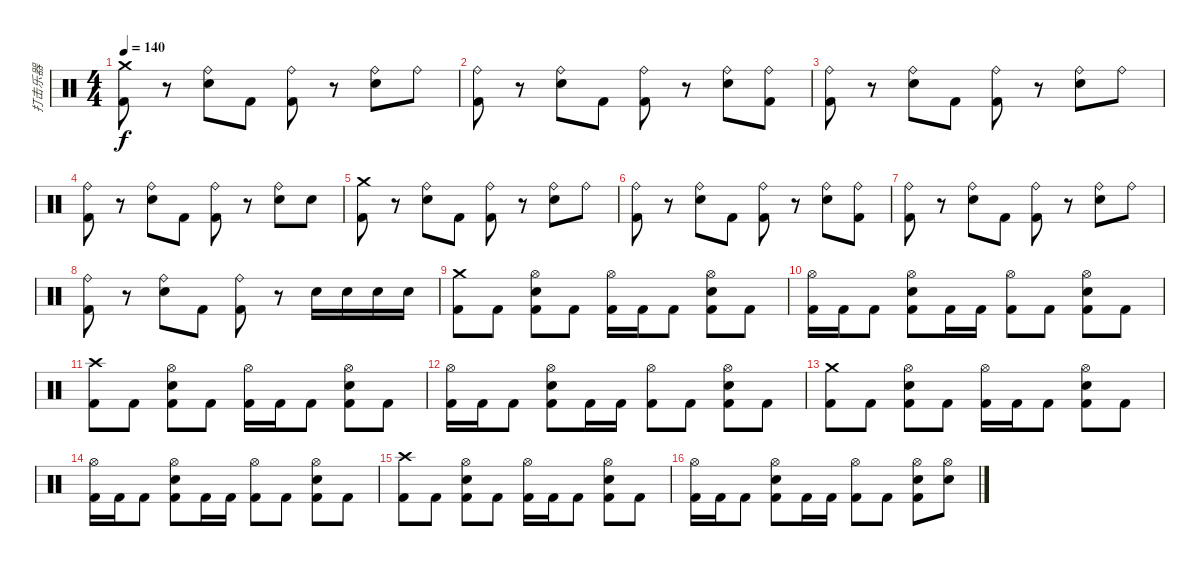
\track ("打击乐器" "打击乐器") {instrument percussion}
\staff {score}
\articulation defaults
\ts (4 4)
\tempo 140
\clef neutral
\ks c
("Crash medium (hit)" "Kick (hit) 2").8{dy f} r.8 ("Ride (bell)" "Snare (hit) 2").8 "Kick (hit) 2".8 ("Ride (bell)" "Kick (hit) 2").8 r.8 ("Ride (bell)" "Snare (hit) 2").8 "Ride (bell)".8 |
("Ride (bell)" "Kick (hit) 2").8 r.8 ("Ride (bell)" "Snare (hit) 2").8 "Kick (hit) 2".8 ("Ride (bell)" "Kick (hit) 2").8 r.8 ("Ride (bell)" "Snare (hit) 2").8 ("Ride (bell)" "Kick (hit) 2").8 |
("Ride (bell)" "Kick (hit) 2").8 r.8 ("Ride (bell)" "Snare (hit) 2").8 "Kick (hit) 2".8 ("Ride (bell)" "Kick (hit) 2").8 r.8 ("Ride (bell)" "Snare (hit) 2").8 "Ride (bell)".8 |
("Ride (bell)" "Kick (hit) 2").8 r.8 ("Ride (bell)" "Snare (hit) 2").8 "Kick (hit) 2".8 ("Ride (bell)" "Kick (hit) 2").8 r.8 ("Ride (bell)" "Snare (hit) 2").8 "Snare (hit) 2".8 |
("Crash medium (hit)" "Kick (hit) 2").8 r.8 ("Ride (bell)" "Snare (hit) 2").8 "Kick (hit) 2".8 ("Ride (bell)" "Kick (hit) 2").8 r.8 ("Ride (bell)" "Snare (hit) 2").8 "Ride (bell)".8 |
("Ride (bell)" "Kick (hit) 2").8 r.8 ("Ride (bell)" "Snare (hit) 2").8 "Kick (hit) 2".8 ("Ride (bell)" "Kick (hit) 2").8 r.8 ("Ride (bell)" "Snare (hit) 2").8 ("Ride (bell)" "Kick (hit) 2").8 |
("Ride (bell)" "Kick (hit) 2").8 r.8 ("Ride (bell)" "Snare (hit) 2").8 "Kick (hit) 2".8 ("Ride (bell)" "Kick (hit) 2").8 r.8 ("Ride (bell)" "Snare (hit) 2").8 "Ride (bell)".8 |
("Ride (bell)" "Kick (hit) 2").8 r.8 ("Ride (bell)" "Snare (hit) 2").8 "Kick (hit) 2".8 ("Ride (bell)" "Kick (hit) 2").8 r.8 "Snare (hit) 2".16 "Snare (hit) 2".16 "Snare (hit) 2".16 "Snare (hit) 2".16 |
("Crash medium (hit)" "Kick (hit) 2").8 "Kick (hit) 2".8 ("Hi-Hat (open)" "Snare (hit) 2" "Kick (hit) 2").8 "Kick (hit) 2".8 ("Hi-Hat (open)" "Kick (hit) 2").16 "Kick (hit) 2".16 "Kick (hit) 2".8 ("Hi-Hat (open)" "Snare (hit) 2" "Kick (hit) 2").8 "Kick (hit) 2".8 |
("Hi-Hat (open)" "Kick (hit) 2").16 "Kick (hit) 2".16 "Kick (hit) 2".8 ("Hi-Hat (open)" "Snare (hit) 2" "Kick (hit) 2").8 "Kick (hit) 2".16 "Kick (hit) 2".16 ("Hi-Hat (open)" "Kick (hit) 2").8 "Kick (hit) 2".8 ("Hi-Hat (open)" "Snare (hit) 2" "Kick (hit) 2").8 "Kick (hit) 2".8 |
("Crash high (hit)" "Kick (hit) 2").8 "Kick (hit) 2".8 ("Hi-Hat (open)" "Snare (hit) 2" "Kick (hit) 2").8 "Kick (hit) 2".8 ("Hi-Hat (open)" "Kick (hit) 2").16 "Kick (hit) 2".16 "Kick (hit) 2".8 ("Hi-Hat (open)" "Snare (hit) 2" "Kick (hit) 2").8 "Kick (hit) 2".8 |
("Hi-Hat (open)" "Kick (hit) 2").16 "Kick (hit) 2".16 "Kick (hit) 2".8 ("Hi-Hat (open)" "Snare (hit) 2" "Kick (hit) 2").8 "Kick (hit) 2".16 "Kick (hit) 2".16 ("Hi-Hat (open)" "Kick (hit) 2").8 "Kick (hit) 2".8 ("Hi-Hat (open)" "Snare (hit) 2" "Kick (hit) 2").8 "Kick (hit) 2".8 |
("Crash medium (hit)" "Kick (hit) 2").8 "Kick (hit) 2".8 ("Hi-Hat (open)" "Snare (hit) 2" "Kick (hit) 2").8 "Kick (hit) 2".8 ("Hi-Hat (open)" "Kick (hit) 2").16 "Kick (hit) 2".16 "Kick (hit) 2".8 ("Hi-Hat (open)" "Snare (hit) 2" "Kick (hit) 2").8 "Kick (hit) 2".8 |
("Hi-Hat (open)" "Kick (hit) 2").16 "Kick (hit) 2".16 "Kick (hit) 2".8 ("Hi-Hat (open)" "Snare (hit) 2" "Kick (hit) 2").8 "Kick (hit) 2".16 "Kick (hit) 2".16 ("Hi-Hat (open)" "Kick (hit) 2").8 "Kick (hit) 2".8 ("Hi-Hat (open)" "Snare (hit) 2" "Kick (hit) 2").8 "Kick (hit) 2".8 |
("Crash high (hit)" "Kick (hit) 2").8 "Kick (hit) 2".8 ("Hi-Hat (open)" "Snare (hit) 2" "Kick (hit) 2").8 "Kick (hit) 2".8 ("Hi-Hat (open)" "Kick (hit) 2").16 "Kick (hit) 2".16 "Kick (hit) 2".8 ("Hi-Hat (open)" "Snare (hit) 2" "Kick (hit) 2").8 "Kick (hit) 2".8 |
("Hi-Hat (open)" "Kick (hit) 2").16 "Kick (hit) 2".16 "Kick (hit) 2".8 ("Hi-Hat (open)" "Snare (hit) 2" "Kick (hit) 2").8 "Kick (hit) 2".16 "Kick (hit) 2".16 ("Hi-Hat (open)" "Kick (hit) 2").8 "Kick (hit) 2".8 ("Hi-Hat (open)" "Snare (hit) 2" "Kick (hit) 2").8 ("Hi-Hat (open)" "Snare (hit) 2").8
